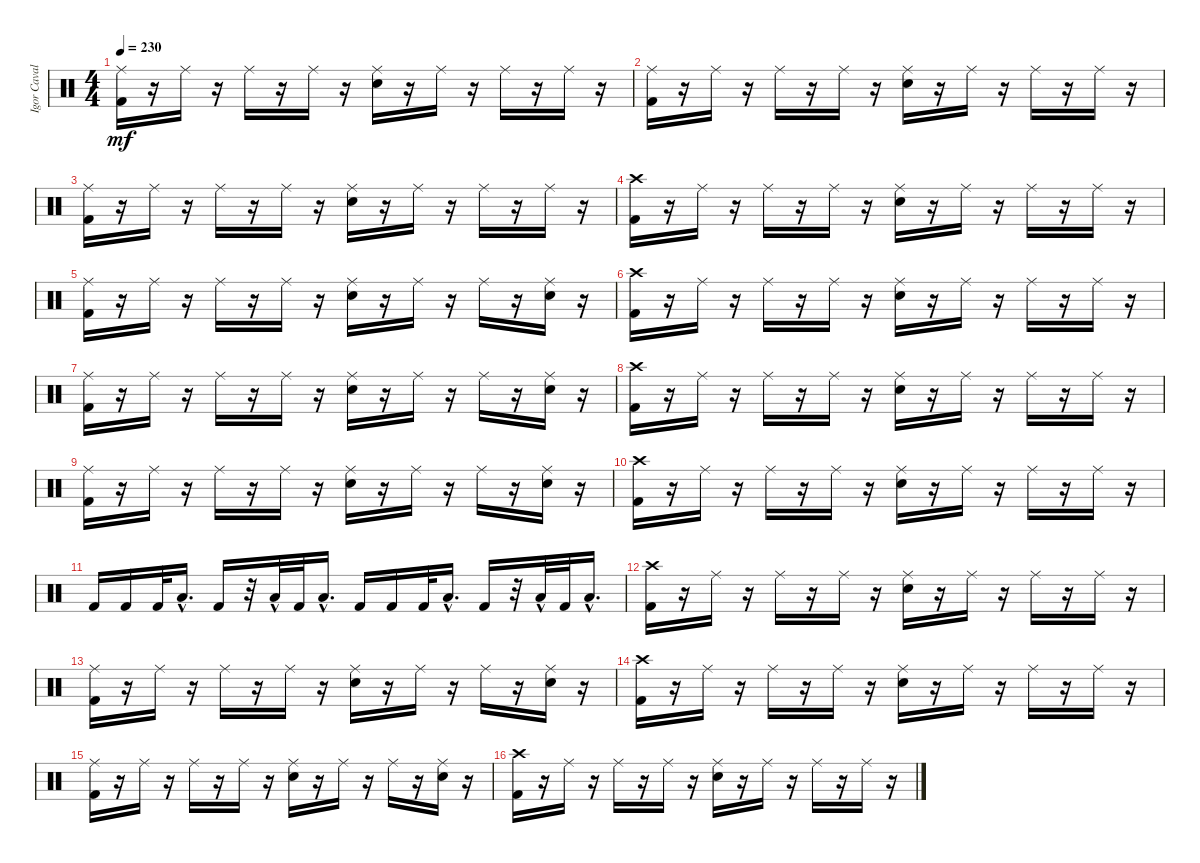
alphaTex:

\track ("Igor Cavalera" "Igor Caval") {instrument percussion}
\staff {score}
\articulation defaults
\ts (4 4)
\tempo 230
\clef neutral
\ks c
("Kick (hit) 2" "Ride (middle)").16{dy mf} r.16 "Ride (middle)".16 r.16 "Ride (middle)".16 r.16 "Ride (middle)".16 r.16 ("Snare (hit) 2" "Ride (middle)").16 r.16 "Ride (middle)".16 r.16 "Ride (middle)".16 r.16 "Ride (middle)".16 r.16 |
("Kick (hit) 2" "Ride (middle)").16 r.16 "Ride (middle)".16 r.16 "Ride (middle)".16 r.16 "Ride (middle)".16 r.16 ("Snare (hit) 2" "Ride (middle)").16 r.16 "Ride (middle)".16 r.16 "Ride (middle)".16 r.16 "Ride (middle)".16 r.16 |
("Kick (hit) 2" "Ride (middle)").16 r.16 "Ride (middle)".16 r.16 "Ride (middle)".16 r.16 "Ride (middle)".16 r.16 ("Snare (hit) 2" "Ride (middle)").16 r.16 "Ride (middle)".16 r.16 "Ride (middle)".16 r.16 "Ride (middle)".16 r.16 |
("Kick (hit) 2" "Crash high (hit)").16 r.16 "Ride (middle)".16 r.16 "Ride (middle)".16 r.16 "Ride (middle)".16 r.16 ("Ride (middle)" "Snare (hit) 2").16 r.16 "Ride (middle)".16 r.16 "Ride (middle)".16 r.16 "Ride (middle)".16 r.16 |
("Kick (hit) 2" "Ride (middle)").16 r.16 "Ride (middle)".16 r.16 "Ride (middle)".16 r.16 "Ride (middle)".16 r.16 ("Snare (hit) 2" "Ride (middle)").16 r.16 "Ride (middle)".16 r.16 "Ride (middle)".16 r.16 ("Snare (hit) 2" "Ride (middle)").16 r.16 |
("Kick (hit) 2" "Crash high (hit)").16 r.16 "Ride (middle)".16 r.16 "Ride (middle)".16 r.16 "Ride (middle)".16 r.16 ("Ride (middle)" "Snare (hit) 2").16 r.16 "Ride (middle)".16 r.16 "Ride (middle)".16 r.16 "Ride (middle)".16 r.16 |
("Kick (hit) 2" "Ride (middle)").16 r.16 "Ride (middle)".16 r.16 "Ride (middle)".16 r.16 "Ride (middle)".16 r.16 ("Snare (hit) 2" "Ride (middle)").16 r.16 "Ride (middle)".16 r.16 "Ride (middle)".16 r.16 ("Snare (hit) 2" "Ride (middle)").16 r.16 |
("Kick (hit) 2" "Crash high (hit)").16 r.16 "Ride (middle)".16 r.16 "Ride (middle)".16 r.16 "Ride (middle)".16 r.16 ("Ride (middle)" "Snare (hit) 2").16 r.16 "Ride (middle)".16 r.16 "Ride (middle)".16 r.16 "Ride (middle)".16 r.16 |
("Kick (hit) 2" "Ride (middle)").16 r.16 "Ride (middle)".16 r.16 "Ride (middle)".16 r.16 "Ride (middle)".16 r.16 ("Snare (hit) 2" "Ride (middle)").16 r.16 "Ride (middle)".16 r.16 "Ride (middle)".16 r.16 ("Snare (hit) 2" "Ride (middle)").16 r.16 |
("Kick (hit) 2" "Crash high (hit)").16 r.16 "Ride (middle)".16 r.16 "Ride (middle)".16 r.16 "Ride (middle)".16 r.16 ("Ride (middle)" "Snare (hit) 2").16 r.16 "Ride (middle)".16 r.16 "Ride (middle)".16 r.16 "Ride (middle)".16 r.16 |
"Kick (hit) 2".16 "Kick (hit) 2".16 "Kick (hit) 2".32 "Low Tom (hit)"{hac}.16{d} "Kick (hit) 2".16 r.32 "Low Tom (hit)"{hac}.32 "Kick (hit) 2".32 "Low Tom (hit)"{hac}.16{d} "Kick (hit) 2".16 "Kick (hit) 2".16 "Kick (hit) 2".32 "Low Tom (hit)"{hac}.16{d} "Kick (hit) 2".16 r.32 "Low Tom (hit)"{hac}.32 "Kick (hit) 2".32 "Low Tom (hit)"{hac}.16{d} |
("Kick (hit) 2" "Crash high (hit)").16 r.16 "Ride (middle)".16 r.16 "Ride (middle)".16 r.16 "Ride (middle)".16 r.16 ("Ride (middle)" "Snare (hit) 2").16 r.16 "Ride (middle)".16 r.16 "Ride (middle)".16 r.16 "Ride (middle)".16 r.16 |
("Kick (hit) 2" "Ride (middle)").16 r.16 "Ride (middle)".16 r.16 "Ride (middle)".16 r.16 "Ride (middle)".16 r.16 ("Snare (hit) 2" "Ride (middle)").16 r.16 "Ride (middle)".16 r.16 "Ride (middle)".16 r.16 ("Snare (hit) 2" "Ride (middle)").16 r.16 |
("Kick (hit) 2" "Crash high (hit)").16 r.16 "Ride (middle)".16 r.16 "Ride (middle)".16 r.16 "Ride (middle)".16 r.16 ("Ride (middle)" "Snare (hit) 2").16 r.16 "Ride (middle)".16 r.16 "Ride (middle)".16 r.16 "Ride (middle)".16 r.16 |
("Kick (hit) 2" "Ride (middle)").16 r.16 "Ride (middle)".16 r.16 "Ride (middle)".16 r.16 "Ride (middle)".16 r.16 ("Snare (hit) 2" "Ride (middle)").16 r.16 "Ride (middle)".16 r.16 "Ride (middle)".16 r.16 ("Snare (hit) 2" "Ride (middle)").16 r.16 |
("Kick (hit) 2" "Crash high (hit)").16 r.16 "Ride (middle)".16 r.16 "Ride (middle)".16 r.16 "Ride (middle)".16 r.16 ("Ride (middle)" "Snare (hit) 2").16 r.16 "Ride (middle)".16 r.16 "Ride (middle)".16 r.16 "Ride (middle)".16 r.16
